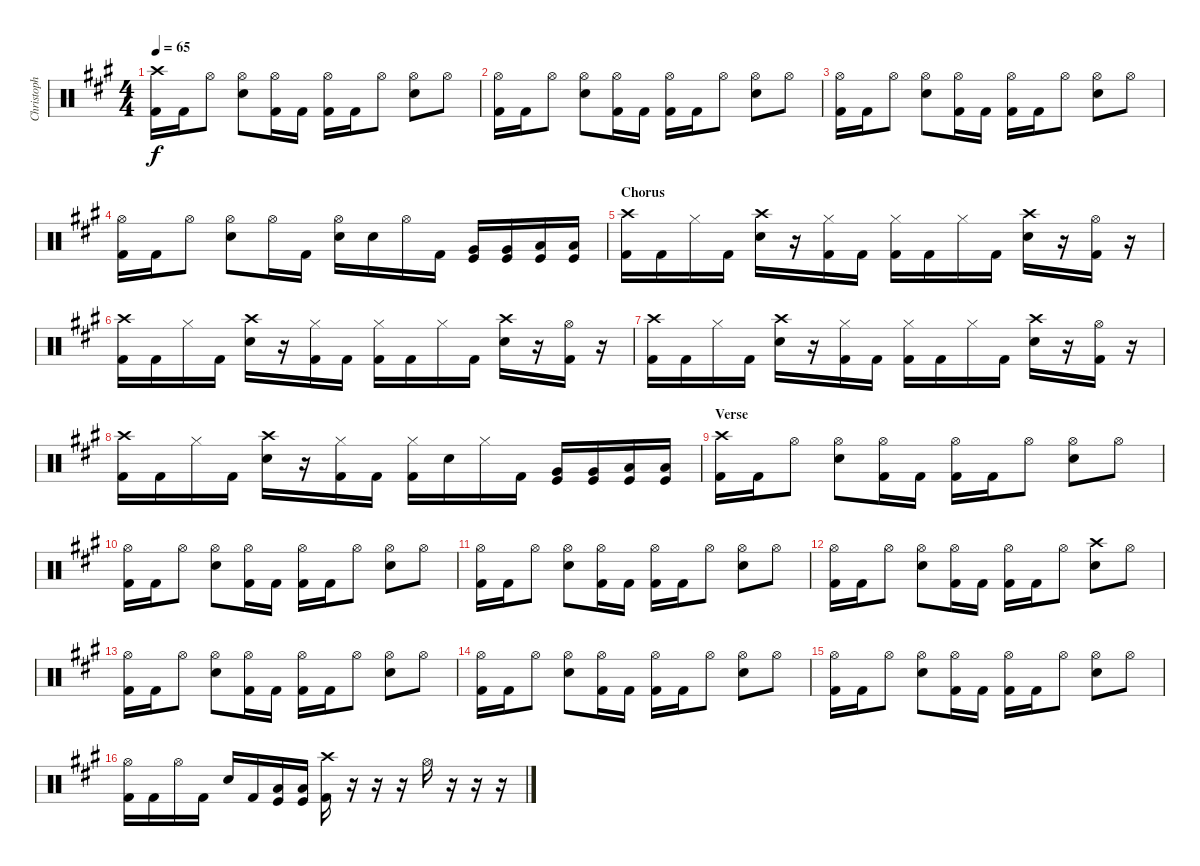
\track ("Christoph Doom Schneider - Drums" "Christoph ") {instrument percussion}
\staff {score}
\articulation defaults
\ts (4 4)
\tempo 65
\clef neutral
\ks a
("Crash high (hit)" "Kick (hit) 2").16{dy f} "Kick (hit) 2".16 "Hi-Hat (open)".8 ("Hi-Hat (open)" "Electric Snare (hit)").8 ("Hi-Hat (open)" "Kick (hit) 2").16 "Kick (hit) 2".16 ("Hi-Hat (open)" "Kick (hit) 2").16 "Kick (hit) 2".16 "Hi-Hat (open)".8 ("Hi-Hat (open)" "Electric Snare (hit)").8 "Hi-Hat (open)".8 |
("Hi-Hat (open)" "Kick (hit) 2").16 "Kick (hit) 2".16 "Hi-Hat (open)".8 ("Hi-Hat (open)" "Electric Snare (hit)").8 ("Hi-Hat (open)" "Kick (hit) 2").16 "Kick (hit) 2".16 ("Hi-Hat (open)" "Kick (hit) 2").16 "Kick (hit) 2".16 "Hi-Hat (open)".8 ("Hi-Hat (open)" "Electric Snare (hit)").8 "Hi-Hat (open)".8 |
("Hi-Hat (open)" "Kick (hit) 2").16 "Kick (hit) 2".16 "Hi-Hat (open)".8 ("Hi-Hat (open)" "Electric Snare (hit)").8 ("Hi-Hat (open)" "Kick (hit) 2").16 "Kick (hit) 2".16 ("Hi-Hat (open)" "Kick (hit) 2").16 "Kick (hit) 2".16 "Hi-Hat (open)".8 ("Hi-Hat (open)" "Electric Snare (hit)").8 "Hi-Hat (open)".8 |
("Hi-Hat (open)" "Kick (hit) 2").16 "Kick (hit) 2".16 "Hi-Hat (open)".8 ("Hi-Hat (open)" "Electric Snare (hit)").8 "Hi-Hat (open)".16 "Kick (hit) 2"{tr (36 64)}.16 ("Hi-Hat (open)" "Electric Snare (hit)").16 "Electric Snare (hit)".16 "Hi-Hat (open)".16 "Kick (hit) 2"{tr (36 64)}.16 ("Very Low Tom (hit)" "Kick (hit)").16 ("Very Low Tom (hit)" "Kick (hit)").16 ("Low Floor Tom (hit)" "Kick (hit)").16 ("Low Floor Tom (hit)" "Kick (hit)").16 |
\section ("" "Chorus")
("Crash high (hit)" "Kick (hit) 2").16{balance 8} "Kick (hit) 2".16 "Hi-Hat (closed)".16 "Kick (hit) 2".16 ("Crash high (hit)" "Electric Snare (hit)").16 r.16 ("Hi-Hat (closed)" "Kick (hit) 2").16 "Kick (hit) 2".16 ("Hi-Hat (closed)" "Kick (hit) 2").16 "Kick (hit) 2".16 "Hi-Hat (closed)".16 "Kick (hit) 2".16 ("Crash high (hit)" "Electric Snare (hit)").16 r.16 ("Hi-Hat (open)" "Kick (hit) 2").16 r.16 |
("Crash high (hit)" "Kick (hit) 2").16 "Kick (hit) 2".16 "Hi-Hat (closed)".16 "Kick (hit) 2".16 ("Crash high (hit)" "Electric Snare (hit)").16 r.16 ("Hi-Hat (closed)" "Kick (hit) 2").16 "Kick (hit) 2".16 ("Hi-Hat (closed)" "Kick (hit) 2").16 "Kick (hit) 2".16 "Hi-Hat (closed)".16 "Kick (hit) 2".16 ("Crash high (hit)" "Electric Snare (hit)").16 r.16 ("Hi-Hat (open)" "Kick (hit) 2").16 r.16 |
("Crash high (hit)" "Kick (hit) 2").16 "Kick (hit) 2".16 "Hi-Hat (closed)".16 "Kick (hit) 2".16 ("Crash high (hit)" "Electric Snare (hit)").16 r.16 ("Hi-Hat (closed)" "Kick (hit) 2").16 "Kick (hit) 2".16 ("Hi-Hat (closed)" "Kick (hit) 2").16 "Kick (hit) 2".16 "Hi-Hat (closed)".16 "Kick (hit) 2".16 ("Crash high (hit)" "Electric Snare (hit)").16 r.16 ("Hi-Hat (open)" "Kick (hit) 2").16 r.16 |
("Crash high (hit)" "Kick (hit) 2").16 "Kick (hit) 2".16 "Hi-Hat (closed)".16 "Kick (hit) 2".16 ("Crash high (hit)" "Electric Snare (hit)").16 r.16 ("Hi-Hat (closed)" "Kick (hit) 2").16 "Kick (hit) 2".16 ("Hi-Hat (closed)" "Kick (hit) 2").16 "Electric Snare (hit)".16 "Hi-Hat (closed)".16 "Kick (hit) 2"{tr (36 64)}.16 ("Very Low Tom (hit)" "Kick (hit)").16 ("Very Low Tom (hit)" "Kick (hit)").16 ("Low Floor Tom (hit)" "Kick (hit)").16 ("Low Floor Tom (hit)" "Kick (hit)").16 |
\section ("" "Verse")
("Crash high (hit)" "Kick (hit) 2").16 "Kick (hit) 2".16 "Hi-Hat (open)".8 ("Hi-Hat (open)" "Electric Snare (hit)").8 ("Hi-Hat (open)" "Kick (hit) 2").16 "Kick (hit) 2".16 ("Hi-Hat (open)" "Kick (hit) 2").16 "Kick (hit) 2".16 "Hi-Hat (open)".8 ("Hi-Hat (open)" "Electric Snare (hit)").8 "Hi-Hat (open)".8 |
("Hi-Hat (open)" "Kick (hit) 2").16 "Kick (hit) 2".16 "Hi-Hat (open)".8 ("Hi-Hat (open)" "Electric Snare (hit)").8 ("Hi-Hat (open)" "Kick (hit) 2").16 "Kick (hit) 2".16 ("Hi-Hat (open)" "Kick (hit) 2").16 "Kick (hit) 2".16 "Hi-Hat (open)".8 ("Hi-Hat (open)" "Electric Snare (hit)").8 "Hi-Hat (open)".8 |
("Hi-Hat (open)" "Kick (hit) 2").16 "Kick (hit) 2".16 "Hi-Hat (open)".8 ("Hi-Hat (open)" "Electric Snare (hit)").8 ("Hi-Hat (open)" "Kick (hit) 2").16 "Kick (hit) 2".16 ("Hi-Hat (open)" "Kick (hit) 2").16 "Kick (hit) 2".16 "Hi-Hat (open)".8 ("Hi-Hat (open)" "Electric Snare (hit)").8 "Hi-Hat (open)".8 |
("Hi-Hat (open)" "Kick (hit) 2").16 "Kick (hit) 2".16 "Hi-Hat (open)".8 ("Hi-Hat (open)" "Electric Snare (hit)").8 ("Hi-Hat (open)" "Kick (hit) 2").16 "Kick (hit) 2".16 ("Hi-Hat (open)" "Kick (hit) 2").16 "Kick (hit) 2".16 "Hi-Hat (open)".8 ("Crash high (hit)" "Electric Snare (hit)").8 "Hi-Hat (open)".8 |
("Hi-Hat (open)" "Kick (hit) 2").16 "Kick (hit) 2".16 "Hi-Hat (open)".8 ("Hi-Hat (open)" "Electric Snare (hit)").8 ("Hi-Hat (open)" "Kick (hit) 2").16 "Kick (hit) 2".16 ("Hi-Hat (open)" "Kick (hit) 2").16 "Kick (hit) 2".16 "Hi-Hat (open)".8 ("Hi-Hat (open)" "Electric Snare (hit)").8 "Hi-Hat (open)".8 |
("Hi-Hat (open)" "Kick (hit) 2").16 "Kick (hit) 2".16 "Hi-Hat (open)".8 ("Hi-Hat (open)" "Electric Snare (hit)").8 ("Hi-Hat (open)" "Kick (hit) 2").16 "Kick (hit) 2".16 ("Hi-Hat (open)" "Kick (hit) 2").16 "Kick (hit) 2".16 "Hi-Hat (open)".8 ("Hi-Hat (open)" "Electric Snare (hit)").8 "Hi-Hat (open)".8 |
("Hi-Hat (open)" "Kick (hit) 2").16 "Kick (hit) 2".16 "Hi-Hat (open)".8 ("Hi-Hat (open)" "Electric Snare (hit)").8 ("Hi-Hat (open)" "Kick (hit) 2").16 "Kick (hit) 2".16 ("Hi-Hat (open)" "Kick (hit) 2").16 "Kick (hit) 2".16 "Hi-Hat (open)".8 ("Hi-Hat (open)" "Electric Snare (hit)").8 "Hi-Hat (open)".8 |
("Hi-Hat (open)" "Kick (hit) 2").16 "Kick (hit) 2".16 "Hi-Hat (open)".16 "Kick (hit) 2"{tr (36 64)}.16 "Electric Snare (hit)".16 "Kick (hit) 2".16 ("Low Floor Tom (hit)" "Kick (hit)").16 ("Low Floor Tom (hit)" "Kick (hit)").16 ("Crash high (hit)" "Kick (hit) 2").16 r.16 r.16 r.16 "Hi-Hat (open)".16 r.16 r.16 r.16
